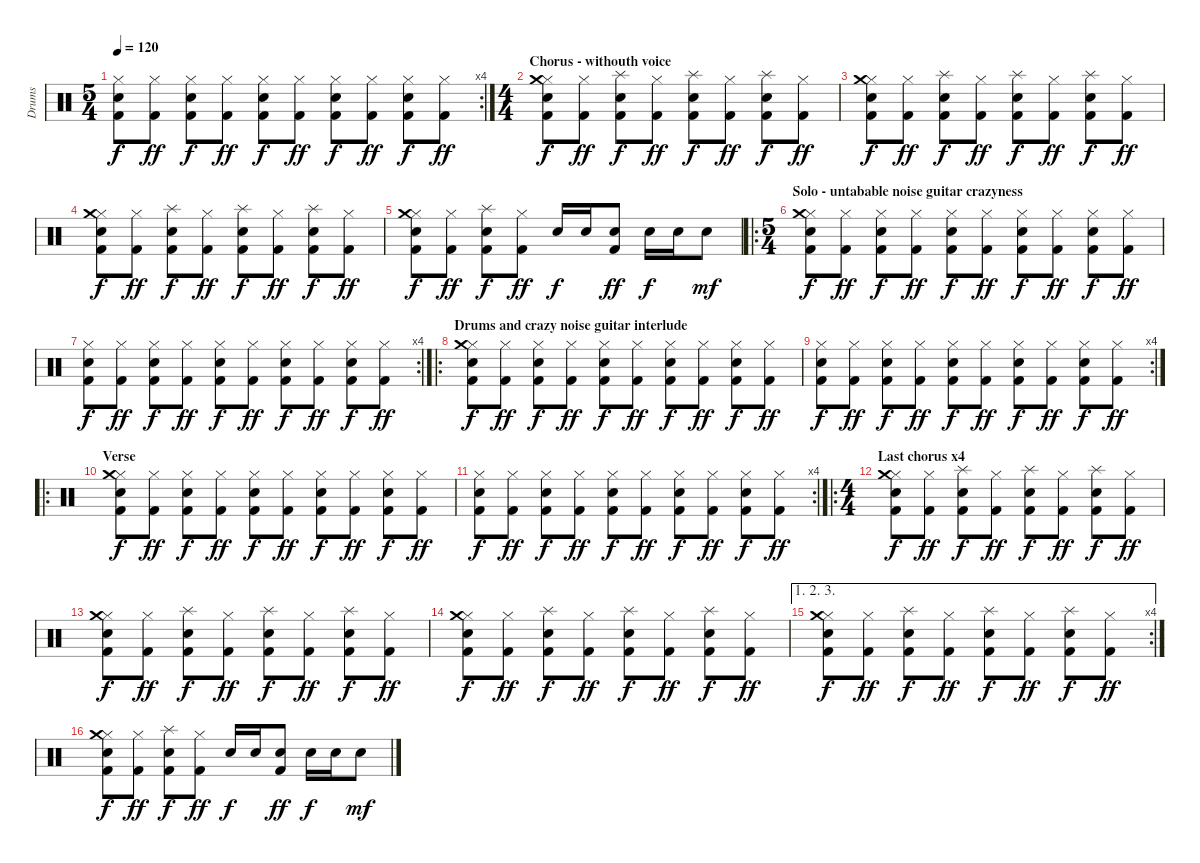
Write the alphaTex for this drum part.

\track ("Drums" "Drums") {instrument percussion}
\staff {score}
\articulation defaults
\rc 4
\ts (5 4)
\tempo 120
\clef neutral
\ks c
("Hi-Hat (closed)" "Snare (hit) 2" "Kick (hit) 2").8{dy f} ("Hi-Hat (closed)" "Kick (hit) 2").8{dy ff} ("Hi-Hat (closed)" "Snare (hit) 2" "Kick (hit) 2").8{dy f} ("Hi-Hat (closed)" "Kick (hit) 2").8{dy ff} ("Hi-Hat (closed)" "Snare (hit) 2" "Kick (hit) 2").8{dy f} ("Hi-Hat (closed)" "Kick (hit) 2").8{dy ff} ("Hi-Hat (closed)" "Snare (hit) 2" "Kick (hit) 2").8{dy f} ("Hi-Hat (closed)" "Kick (hit) 2").8{dy ff} ("Hi-Hat (closed)" "Snare (hit) 2" "Kick (hit) 2").8{dy f} ("Hi-Hat (closed)" "Kick (hit) 2").8{dy ff} |
\ts (4 4)
\section ("" "Chorus - withouth voice")
("Hi-Hat (closed)" "Crash medium (hit)" "Snare (hit) 2" "Kick (hit) 2").8{dy f} ("Hi-Hat (closed)" "Kick (hit) 2").8{dy ff} ("Splash (hit)" "Snare (hit) 2" "Kick (hit) 2").8{dy f} ("Hi-Hat (closed)" "Kick (hit) 2").8{dy ff} ("Splash (hit)" "Snare (hit) 2" "Kick (hit) 2").8{dy f} ("Hi-Hat (closed)" "Kick (hit) 2").8{dy ff} ("Splash (hit)" "Snare (hit) 2" "Kick (hit) 2").8{dy f} ("Hi-Hat (closed)" "Kick (hit) 2").8{dy ff} |
("Hi-Hat (closed)" "Crash medium (hit)" "Snare (hit) 2" "Kick (hit) 2").8{dy f} ("Hi-Hat (closed)" "Kick (hit) 2").8{dy ff} ("Splash (hit)" "Snare (hit) 2" "Kick (hit) 2").8{dy f} ("Hi-Hat (closed)" "Kick (hit) 2").8{dy ff} ("Splash (hit)" "Snare (hit) 2" "Kick (hit) 2").8{dy f} ("Hi-Hat (closed)" "Kick (hit) 2").8{dy ff} ("Splash (hit)" "Snare (hit) 2" "Kick (hit) 2").8{dy f} ("Hi-Hat (closed)" "Kick (hit) 2").8{dy ff} |
("Hi-Hat (closed)" "Crash medium (hit)" "Snare (hit) 2" "Kick (hit) 2").8{dy f} ("Hi-Hat (closed)" "Kick (hit) 2").8{dy ff} ("Splash (hit)" "Snare (hit) 2" "Kick (hit) 2").8{dy f} ("Hi-Hat (closed)" "Kick (hit) 2").8{dy ff} ("Splash (hit)" "Snare (hit) 2" "Kick (hit) 2").8{dy f} ("Hi-Hat (closed)" "Kick (hit) 2").8{dy ff} ("Splash (hit)" "Snare (hit) 2" "Kick (hit) 2").8{dy f} ("Hi-Hat (closed)" "Kick (hit) 2").8{dy ff} |
("Hi-Hat (closed)" "Crash medium (hit)" "Snare (hit) 2" "Kick (hit) 2").8{dy f} ("Hi-Hat (closed)" "Kick (hit) 2").8{dy ff} ("Splash (hit)" "Snare (hit) 2" "Kick (hit) 2").8{dy f} ("Hi-Hat (closed)" "Kick (hit) 2").8{dy ff} "Snare (hit) 2".16{dy f} "Snare (hit) 2".16 ("Snare (hit) 2" "Kick (hit) 2").8{dy ff} "Snare (hit) 2".16{dy f} "Snare (hit) 2".16 "Snare (hit) 2".8{dy mf} |
\ro
\ts (5 4)
\section ("" "Solo - untabable noise guitar crazyness")
("Hi-Hat (closed)" "Crash medium (hit)" "Snare (hit) 2" "Kick (hit) 2").8{dy f} ("Hi-Hat (closed)" "Kick (hit) 2").8{dy ff} ("Hi-Hat (closed)" "Snare (hit) 2" "Kick (hit) 2").8{dy f} ("Hi-Hat (closed)" "Kick (hit) 2").8{dy ff} ("Hi-Hat (closed)" "Snare (hit) 2" "Kick (hit) 2").8{dy f} ("Hi-Hat (closed)" "Kick (hit) 2").8{dy ff} ("Hi-Hat (closed)" "Snare (hit) 2" "Kick (hit) 2").8{dy f} ("Hi-Hat (closed)" "Kick (hit) 2").8{dy ff} ("Hi-Hat (closed)" "Snare (hit) 2" "Kick (hit) 2").8{dy f} ("Hi-Hat (closed)" "Kick (hit) 2").8{dy ff} |
\rc 4
("Hi-Hat (closed)" "Snare (hit) 2" "Kick (hit) 2").8{dy f} ("Hi-Hat (closed)" "Kick (hit) 2").8{dy ff} ("Hi-Hat (closed)" "Snare (hit) 2" "Kick (hit) 2").8{dy f} ("Hi-Hat (closed)" "Kick (hit) 2").8{dy ff} ("Hi-Hat (closed)" "Snare (hit) 2" "Kick (hit) 2").8{dy f} ("Hi-Hat (closed)" "Kick (hit) 2").8{dy ff} ("Hi-Hat (closed)" "Snare (hit) 2" "Kick (hit) 2").8{dy f} ("Hi-Hat (closed)" "Kick (hit) 2").8{dy ff} ("Hi-Hat (closed)" "Snare (hit) 2" "Kick (hit) 2").8{dy f} ("Hi-Hat (closed)" "Kick (hit) 2").8{dy ff} |
\ro
\section ("" "Drums and crazy noise guitar interlude")
("Hi-Hat (closed)" "Crash medium (hit)" "Snare (hit) 2" "Kick (hit) 2").8{dy f} ("Hi-Hat (closed)" "Kick (hit) 2").8{dy ff} ("Hi-Hat (closed)" "Snare (hit) 2" "Kick (hit) 2").8{dy f} ("Hi-Hat (closed)" "Kick (hit) 2").8{dy ff} ("Hi-Hat (closed)" "Snare (hit) 2" "Kick (hit) 2").8{dy f} ("Hi-Hat (closed)" "Kick (hit) 2").8{dy ff} ("Hi-Hat (closed)" "Snare (hit) 2" "Kick (hit) 2").8{dy f} ("Hi-Hat (closed)" "Kick (hit) 2").8{dy ff} ("Hi-Hat (closed)" "Snare (hit) 2" "Kick (hit) 2").8{dy f} ("Hi-Hat (closed)" "Kick (hit) 2").8{dy ff} |
\rc 4
("Hi-Hat (closed)" "Snare (hit) 2" "Kick (hit) 2").8{dy f} ("Hi-Hat (closed)" "Kick (hit) 2").8{dy ff} ("Hi-Hat (closed)" "Snare (hit) 2" "Kick (hit) 2").8{dy f} ("Hi-Hat (closed)" "Kick (hit) 2").8{dy ff} ("Hi-Hat (closed)" "Snare (hit) 2" "Kick (hit) 2").8{dy f} ("Hi-Hat (closed)" "Kick (hit) 2").8{dy ff} ("Hi-Hat (closed)" "Snare (hit) 2" "Kick (hit) 2").8{dy f} ("Hi-Hat (closed)" "Kick (hit) 2").8{dy ff} ("Hi-Hat (closed)" "Snare (hit) 2" "Kick (hit) 2").8{dy f} ("Hi-Hat (closed)" "Kick (hit) 2").8{dy ff} |
\ro
\section ("" "Verse")
("Hi-Hat (closed)" "Crash medium (hit)" "Snare (hit) 2" "Kick (hit) 2").8{dy f} ("Hi-Hat (closed)" "Kick (hit) 2").8{dy ff} ("Hi-Hat (closed)" "Snare (hit) 2" "Kick (hit) 2").8{dy f} ("Hi-Hat (closed)" "Kick (hit) 2").8{dy ff} ("Hi-Hat (closed)" "Snare (hit) 2" "Kick (hit) 2").8{dy f} ("Hi-Hat (closed)" "Kick (hit) 2").8{dy ff} ("Hi-Hat (closed)" "Snare (hit) 2" "Kick (hit) 2").8{dy f} ("Hi-Hat (closed)" "Kick (hit) 2").8{dy ff} ("Hi-Hat (closed)" "Snare (hit) 2" "Kick (hit) 2").8{dy f} ("Hi-Hat (closed)" "Kick (hit) 2").8{dy ff} |
\rc 4
("Hi-Hat (closed)" "Snare (hit) 2" "Kick (hit) 2").8{dy f} ("Hi-Hat (closed)" "Kick (hit) 2").8{dy ff} ("Hi-Hat (closed)" "Snare (hit) 2" "Kick (hit) 2").8{dy f} ("Hi-Hat (closed)" "Kick (hit) 2").8{dy ff} ("Hi-Hat (closed)" "Snare (hit) 2" "Kick (hit) 2").8{dy f} ("Hi-Hat (closed)" "Kick (hit) 2").8{dy ff} ("Hi-Hat (closed)" "Snare (hit) 2" "Kick (hit) 2").8{dy f} ("Hi-Hat (closed)" "Kick (hit) 2").8{dy ff} ("Hi-Hat (closed)" "Snare (hit) 2" "Kick (hit) 2").8{dy f} ("Hi-Hat (closed)" "Kick (hit) 2").8{dy ff} |
\ro
\ts (4 4)
\section ("" "Last chorus x4")
("Hi-Hat (closed)" "Crash medium (hit)" "Snare (hit) 2" "Kick (hit) 2").8{dy f} ("Hi-Hat (closed)" "Kick (hit) 2").8{dy ff} ("Splash (hit)" "Snare (hit) 2" "Kick (hit) 2").8{dy f} ("Hi-Hat (closed)" "Kick (hit) 2").8{dy ff} ("Splash (hit)" "Snare (hit) 2" "Kick (hit) 2").8{dy f} ("Hi-Hat (closed)" "Kick (hit) 2").8{dy ff} ("Splash (hit)" "Snare (hit) 2" "Kick (hit) 2").8{dy f} ("Hi-Hat (closed)" "Kick (hit) 2").8{dy ff} |
("Hi-Hat (closed)" "Crash medium (hit)" "Snare (hit) 2" "Kick (hit) 2").8{dy f} ("Hi-Hat (closed)" "Kick (hit) 2").8{dy ff} ("Splash (hit)" "Snare (hit) 2" "Kick (hit) 2").8{dy f} ("Hi-Hat (closed)" "Kick (hit) 2").8{dy ff} ("Splash (hit)" "Snare (hit) 2" "Kick (hit) 2").8{dy f} ("Hi-Hat (closed)" "Kick (hit) 2").8{dy ff} ("Splash (hit)" "Snare (hit) 2" "Kick (hit) 2").8{dy f} ("Hi-Hat (closed)" "Kick (hit) 2").8{dy ff} |
("Hi-Hat (closed)" "Crash medium (hit)" "Snare (hit) 2" "Kick (hit) 2").8{dy f} ("Hi-Hat (closed)" "Kick (hit) 2").8{dy ff} ("Splash (hit)" "Snare (hit) 2" "Kick (hit) 2").8{dy f} ("Hi-Hat (closed)" "Kick (hit) 2").8{dy ff} ("Splash (hit)" "Snare (hit) 2" "Kick (hit) 2").8{dy f} ("Hi-Hat (closed)" "Kick (hit) 2").8{dy ff} ("Splash (hit)" "Snare (hit) 2" "Kick (hit) 2").8{dy f} ("Hi-Hat (closed)" "Kick (hit) 2").8{dy ff} |
\ae (1 2 3)
\rc 4
("Hi-Hat (closed)" "Crash medium (hit)" "Snare (hit) 2" "Kick (hit) 2").8{dy f} ("Hi-Hat (closed)" "Kick (hit) 2").8{dy ff} ("Splash (hit)" "Snare (hit) 2" "Kick (hit) 2").8{dy f} ("Hi-Hat (closed)" "Kick (hit) 2").8{dy ff} ("Splash (hit)" "Snare (hit) 2" "Kick (hit) 2").8{dy f} ("Hi-Hat (closed)" "Kick (hit) 2").8{dy ff} ("Splash (hit)" "Snare (hit) 2" "Kick (hit) 2").8{dy f} ("Hi-Hat (closed)" "Kick (hit) 2").8{dy ff} |
("Hi-Hat (closed)" "Crash medium (hit)" "Snare (hit) 2" "Kick (hit) 2").8{dy f} ("Hi-Hat (closed)" "Kick (hit) 2").8{dy ff} ("Splash (hit)" "Snare (hit) 2" "Kick (hit) 2").8{dy f} ("Hi-Hat (closed)" "Kick (hit) 2").8{dy ff} "Snare (hit) 2".16{dy f} "Snare (hit) 2".16 ("Snare (hit) 2" "Kick (hit) 2").8{dy ff} "Snare (hit) 2".16{dy f} "Snare (hit) 2".16 "Snare (hit) 2".8{dy mf}
